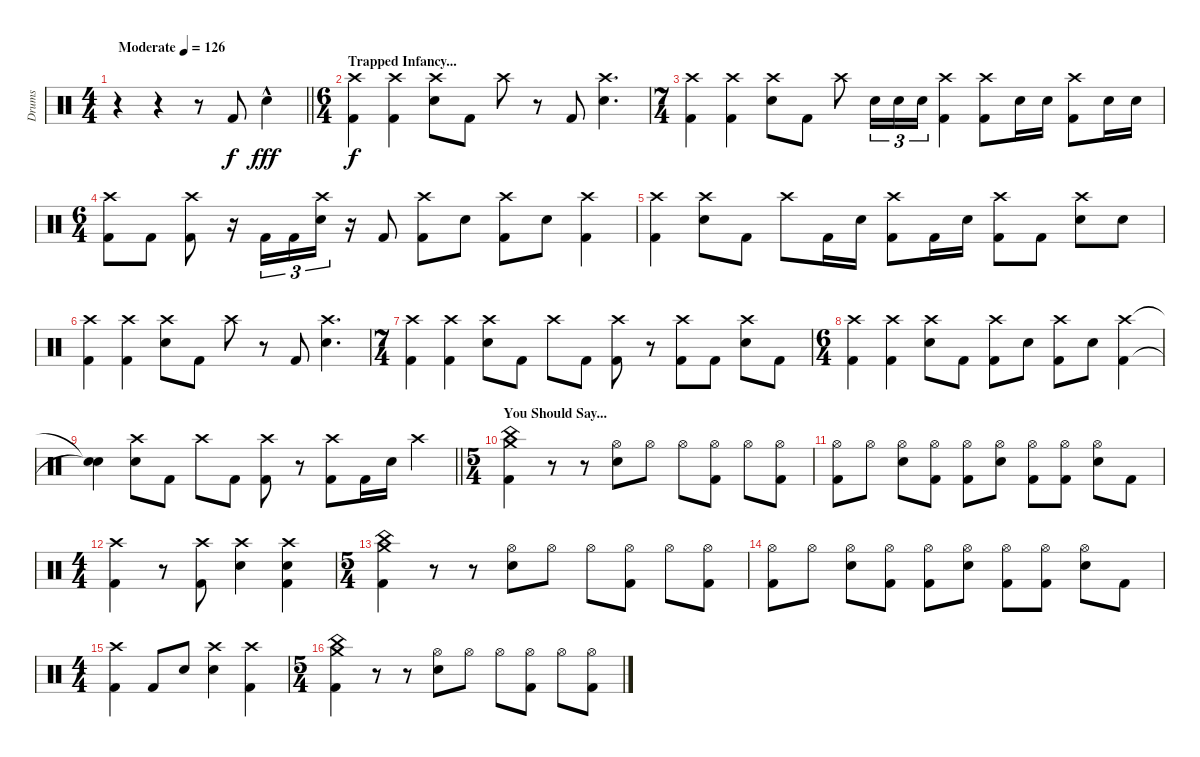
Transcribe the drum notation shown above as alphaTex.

\track ("Drums" "Drums") {instrument percussion}
\staff {score}
\articulation defaults
\ts (4 4)
\tempo (126 "Moderate")
\clef neutral
\barLineRight lightlight
\ks c
r.4{dy f} r.4 r.8 "Kick (hit) 2".8 "Snare (hit) 2"{hac}.4{dy fff} |
\ts (6 4)
\section ("" "Trapped Infancy...")
("Crash high (hit)" "Kick (hit) 2").4{dy f} ("Crash high (hit)" "Kick (hit) 2").4 ("Crash high (hit)" "Snare (hit) 2").8 "Kick (hit) 2".8 "Crash high (hit)".8 r.8 "Kick (hit) 2".8 ("Crash high (hit)" "Snare (hit) 2").4{d} |
\ts (7 4)
("Crash high (hit)" "Kick (hit) 2").4 ("Crash high (hit)" "Kick (hit) 2").4 ("Crash high (hit)" "Snare (hit) 2").8 "Kick (hit) 2".8 "Crash high (hit)".8 "Snare (hit) 2".16{tu (3 2)} "Snare (hit) 2".16{tu (3 2)} "Snare (hit) 2".16{tu (3 2)} ("Crash high (hit)" "Kick (hit) 2").4 ("Crash high (hit)" "Kick (hit) 2").8 "Snare (hit) 2".16 "Snare (hit) 2".16 ("Crash high (hit)" "Kick (hit) 2").8 "Snare (hit) 2".16 "Snare (hit) 2".16 |
\ts (6 4)
("Crash high (hit)" "Kick (hit) 2").8 "Kick (hit) 2".8 ("Crash high (hit)" "Kick (hit) 2").8 r.16 "Kick (hit) 2".16{tu (3 2)} "Kick (hit) 2".16{tu (3 2)} ("Crash high (hit)" "Snare (hit) 2").16{tu (3 2)} r.16 "Kick (hit) 2".8 ("Crash high (hit)" "Kick (hit) 2").8 "Snare (hit) 2".8 ("Crash high (hit)" "Kick (hit) 2").8 "Snare (hit) 2".8 ("Crash high (hit)" "Kick (hit) 2").4 |
("Crash high (hit)" "Kick (hit) 2").4 ("Crash high (hit)" "Snare (hit) 2").8 "Kick (hit) 2".8 "Crash high (hit)".8 "Kick (hit) 2".16 "Snare (hit) 2".16 ("Crash high (hit)" "Kick (hit) 2").8 "Kick (hit) 2".16 "Snare (hit) 2".16 ("Crash high (hit)" "Kick (hit) 2").8 "Kick (hit) 2".8 ("Crash high (hit)" "Snare (hit) 2").8 "Snare (hit) 2".8 |
("Crash high (hit)" "Kick (hit) 2").4 ("Crash high (hit)" "Kick (hit) 2").4 ("Crash high (hit)" "Snare (hit) 2").8 "Kick (hit) 2".8 "Crash high (hit)".8 r.8 "Kick (hit) 2".8 ("Crash high (hit)" "Snare (hit) 2").4{d} |
\ts (7 4)
("Crash high (hit)" "Kick (hit) 2").4 ("Crash high (hit)" "Kick (hit) 2").4 ("Crash high (hit)" "Snare (hit) 2").8 "Kick (hit) 2".8 "Crash high (hit)".8 "Kick (hit) 2".8 ("Crash high (hit)" "Kick (hit) 2").8 r.8 ("Crash high (hit)" "Kick (hit) 2").8 "Kick (hit) 2".8 ("Crash high (hit)" "Snare (hit) 2").8 "Kick (hit) 2".8 |
\ts (6 4)
("Crash high (hit)" "Kick (hit) 2").4 ("Crash high (hit)" "Kick (hit) 2").4 ("Crash high (hit)" "Snare (hit) 2").8 "Kick (hit) 2".8 ("Crash high (hit)" "Kick (hit) 2").8 "Snare (hit) 2".8 ("Crash high (hit)" "Kick (hit) 2").8 "Snare (hit) 2".8 ("Crash high (hit)" "Kick (hit) 2").4 |
\barLineRight lightlight
("Snare (hit)"{t} "Snare (hit)"{t}).4 ("Crash high (hit)" "Snare (hit) 2").8 "Kick (hit) 2".8 "Crash high (hit)".8 "Kick (hit) 2".8 ("Crash high (hit)" "Kick (hit) 2").8 r.8 ("Crash high (hit)" "Kick (hit) 2").8 "Kick (hit) 2".16 "Snare (hit) 2".16 "Crash high (hit)".4 |
\ts (5 4)
\section ("" "You Should Say...")
("China (hit)" "Crash medium (hit)" "Kick (hit) 2").4 r.8 r.8 ("Hi-Hat (open)" "Snare (hit) 2").8 "Hi-Hat (open)".8 "Hi-Hat (open)".8 ("Hi-Hat (open)" "Kick (hit) 2").8 "Hi-Hat (open)".8 ("Hi-Hat (open)" "Kick (hit) 2").8 |
("Hi-Hat (open)" "Kick (hit) 2").8 "Hi-Hat (open)".8 ("Hi-Hat (open)" "Snare (hit) 2").8 ("Hi-Hat (open)" "Kick (hit) 2").8 ("Hi-Hat (open)" "Kick (hit) 2").8 ("Hi-Hat (open)" "Snare (hit) 2").8 ("Hi-Hat (open)" "Kick (hit) 2").8 ("Hi-Hat (open)" "Kick (hit) 2").8 ("Hi-Hat (open)" "Snare (hit) 2").8 "Kick (hit) 2".8 |
\ts (4 4)
("Crash high (hit)" "Kick (hit) 2").4 r.8 ("Crash high (hit)" "Kick (hit) 2").8 ("Crash high (hit)" "Snare (hit) 2").4 ("Crash high (hit)" "Snare (hit) 2" "Kick (hit) 2").4 |
\ts (5 4)
("China (hit)" "Crash medium (hit)" "Kick (hit) 2").4 r.8 r.8 ("Hi-Hat (open)" "Snare (hit) 2").8 "Hi-Hat (open)".8 "Hi-Hat (open)".8 ("Hi-Hat (open)" "Kick (hit) 2").8 "Hi-Hat (open)".8 ("Hi-Hat (open)" "Kick (hit) 2").8 |
("Hi-Hat (open)" "Kick (hit) 2").8 "Hi-Hat (open)".8 ("Hi-Hat (open)" "Snare (hit) 2").8 ("Hi-Hat (open)" "Kick (hit) 2").8 ("Hi-Hat (open)" "Kick (hit) 2").8 ("Hi-Hat (open)" "Snare (hit) 2").8 ("Hi-Hat (open)" "Kick (hit) 2").8 ("Hi-Hat (open)" "Kick (hit) 2").8 ("Hi-Hat (open)" "Snare (hit) 2").8 "Kick (hit) 2".8 |
\ts (4 4)
("Crash high (hit)" "Kick (hit) 2").4 "Kick (hit) 2".8 "Snare (hit) 2".8 ("Crash high (hit)" "Snare (hit) 2").4 ("Crash high (hit)" "Kick (hit) 2").4 |
\ts (5 4)
("China (hit)" "Crash medium (hit)" "Kick (hit) 2").4 r.8 r.8 ("Hi-Hat (open)" "Snare (hit) 2").8 "Hi-Hat (open)".8 "Hi-Hat (open)".8 ("Hi-Hat (open)" "Kick (hit) 2").8 "Hi-Hat (open)".8 ("Hi-Hat (open)" "Kick (hit) 2").8
